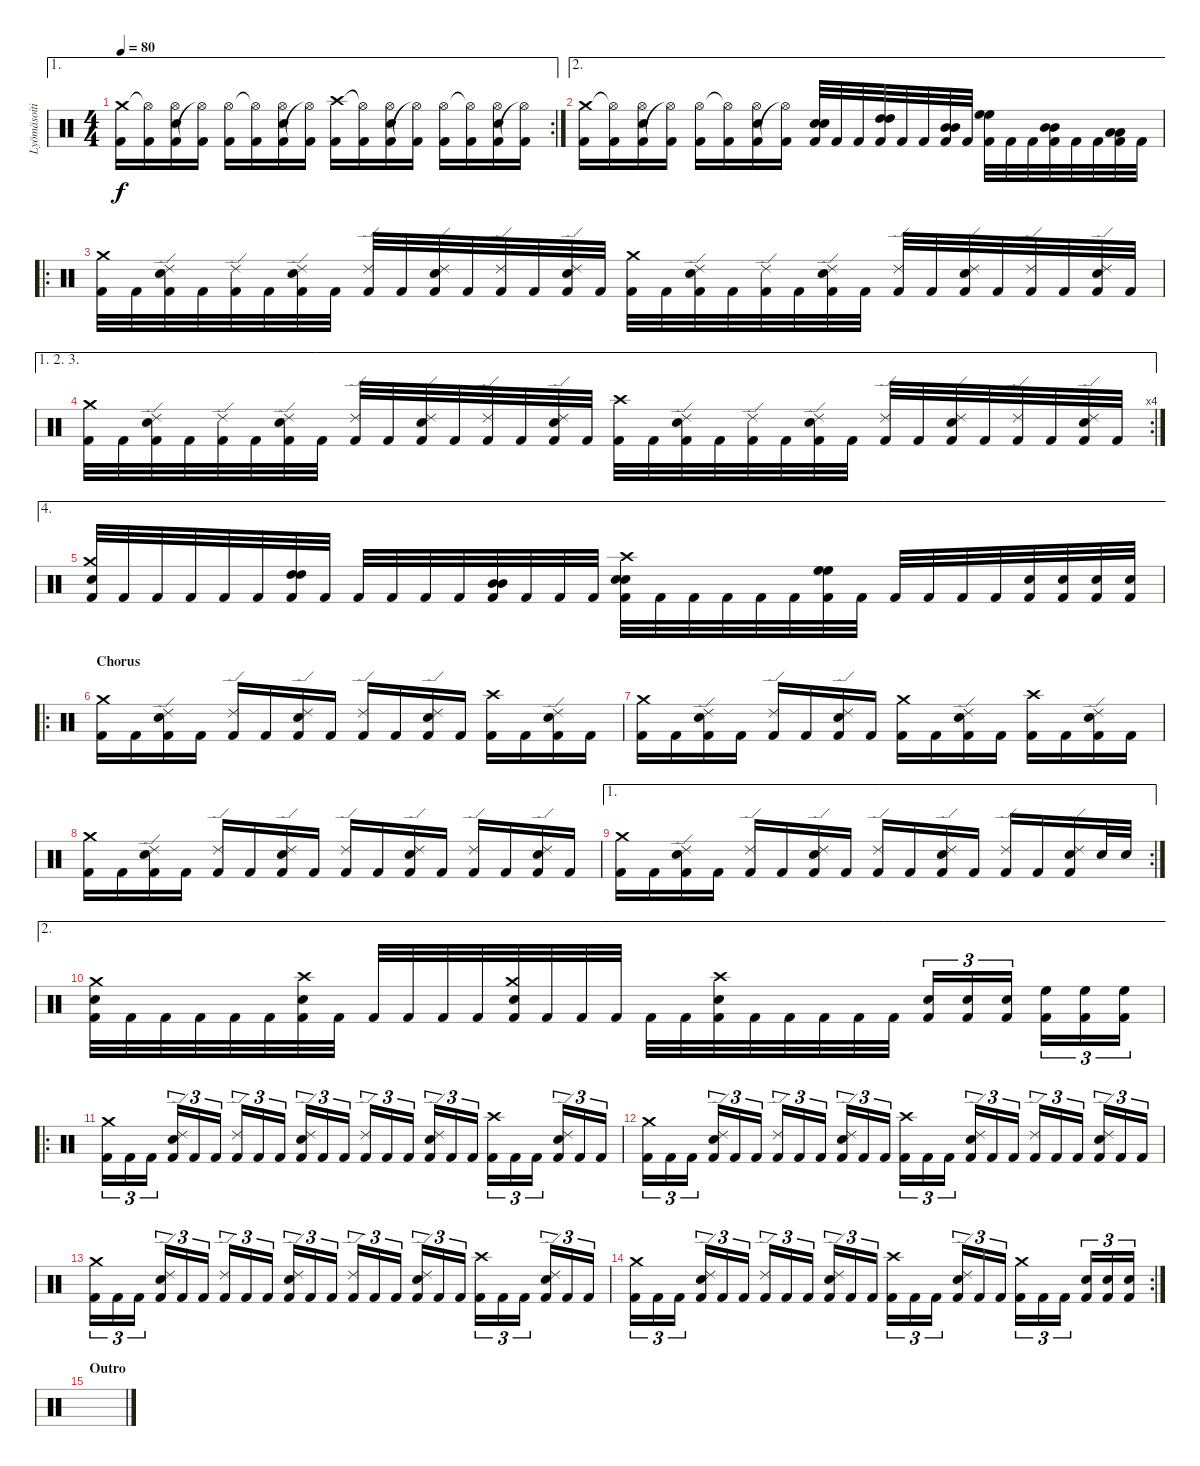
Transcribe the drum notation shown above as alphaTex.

\track ("Lyömäsoitin" "Lyömäsoiti") {instrument percussion}
\staff {score}
\articulation defaults
\ae 1
\rc 2
\ts (4 4)
\tempo 80
\clef neutral
\ks c
("Kick (hit) 2" "Crash medium (hit)").16{dy f} ("Kick (hit) 2" "Hi-Hat (open)"{t}).16 ("Electric Snare (hit)" "Kick (hit) 2" "Hi-Hat (open)").16 ("Kick (hit) 2" "Hi-Hat (open)"{t}).16 ("Kick (hit) 2" "Hi-Hat (open)").16 ("Kick (hit) 2" "Hi-Hat (open)"{t}).16 ("Electric Snare (hit)" "Kick (hit) 2" "Hi-Hat (open)").16 ("Kick (hit) 2" "Hi-Hat (open)"{t}).16 ("Kick (hit) 2" "Crash high (hit)").16 ("Kick (hit) 2" "Hi-Hat (open)"{t}).16 ("Electric Snare (hit)" "Kick (hit) 2" "Hi-Hat (open)").16 ("Kick (hit) 2" "Hi-Hat (open)"{t}).16 ("Kick (hit) 2" "Hi-Hat (open)").16 ("Kick (hit) 2" "Hi-Hat (open)"{t}).16 ("Electric Snare (hit)" "Kick (hit) 2" "Hi-Hat (open)").16 ("Kick (hit) 2" "Hi-Hat (open)"{t}).16 |
\ae 2
("Kick (hit) 2" "Crash medium (hit)").16 ("Kick (hit) 2" "Hi-Hat (open)"{t}).16 ("Electric Snare (hit)" "Kick (hit) 2" "Hi-Hat (open)").16 ("Kick (hit) 2" "Hi-Hat (open)"{t}).16 ("Kick (hit) 2" "Hi-Hat (open)").16 ("Kick (hit) 2" "Hi-Hat (open)"{t}).16 ("Electric Snare (hit)" "Kick (hit) 2" "Hi-Hat (open)").16 ("Kick (hit) 2" "Hi-Hat (open)"{t}).16 ("Electric Snare (hit)" "Electric Snare (hit)" "Kick (hit) 2").32 "Kick (hit) 2".32 "Kick (hit) 2".32 ("High Tom (hit)" "High Tom (hit)" "Kick (hit) 2").32 "Kick (hit) 2".32 "Kick (hit) 2".32 ("Mid Tom (hit)" "Mid Tom (hit)" "Kick (hit) 2").32 "Kick (hit) 2".32 ("High Floor Tom (hit)" "High Floor Tom (hit)" "Kick (hit) 2").32 "Kick (hit) 2".32 "Kick (hit) 2".32 ("Mid Tom (hit)" "Mid Tom (hit)" "Kick (hit) 2").32 "Kick (hit) 2".32 "Kick (hit) 2".32 ("Low Tom (hit)" "Low Tom (hit)" "Kick (hit) 2").32 "Kick (hit) 2".32 |
\ro
("Kick (hit) 2" "Crash medium (hit)").32 "Kick (hit) 2".32 ("Electric Snare (hit)" "Kick (hit) 2" "Ride (edge) 2").32 "Kick (hit) 2".32 ("Kick (hit) 2" "Ride (edge) 2").32 "Kick (hit) 2".32 ("Electric Snare (hit)" "Kick (hit) 2" "Ride (edge) 2").32 "Kick (hit) 2".32 ("Kick (hit) 2" "Ride (edge) 2").32 "Kick (hit) 2".32 ("Electric Snare (hit)" "Kick (hit) 2" "Ride (edge) 2").32 "Kick (hit) 2".32 ("Kick (hit) 2" "Ride (edge) 2").32 "Kick (hit) 2".32 ("Electric Snare (hit)" "Kick (hit) 2" "Ride (edge) 2").32 "Kick (hit) 2".32 ("Kick (hit) 2" "Crash medium (hit)").32 "Kick (hit) 2".32 ("Electric Snare (hit)" "Kick (hit) 2" "Ride (edge) 2").32 "Kick (hit) 2".32 ("Kick (hit) 2" "Ride (edge) 2").32 "Kick (hit) 2".32 ("Electric Snare (hit)" "Kick (hit) 2" "Ride (edge) 2").32 "Kick (hit) 2".32 ("Kick (hit) 2" "Ride (edge) 2").32 "Kick (hit) 2".32 ("Electric Snare (hit)" "Kick (hit) 2" "Ride (edge) 2").32 "Kick (hit) 2".32 ("Kick (hit) 2" "Ride (edge) 2").32 "Kick (hit) 2".32 ("Electric Snare (hit)" "Kick (hit) 2" "Ride (edge) 2").32 "Kick (hit) 2".32 |
\ae (1 2 3)
\rc 4
("Kick (hit) 2" "Crash medium (hit)").32 "Kick (hit) 2".32 ("Electric Snare (hit)" "Kick (hit) 2" "Ride (edge) 2").32 "Kick (hit) 2".32 ("Kick (hit) 2" "Ride (edge) 2").32 "Kick (hit) 2".32 ("Electric Snare (hit)" "Kick (hit) 2" "Ride (edge) 2").32 "Kick (hit) 2".32 ("Kick (hit) 2" "Ride (edge) 2").32 "Kick (hit) 2".32 ("Electric Snare (hit)" "Kick (hit) 2" "Ride (edge) 2").32 "Kick (hit) 2".32 ("Kick (hit) 2" "Ride (edge) 2").32 "Kick (hit) 2".32 ("Electric Snare (hit)" "Kick (hit) 2" "Ride (edge) 2").32 "Kick (hit) 2".32 ("Kick (hit) 2" "Crash high (hit)").32 "Kick (hit) 2".32 ("Electric Snare (hit)" "Kick (hit) 2" "Ride (edge) 2").32 "Kick (hit) 2".32 ("Kick (hit) 2" "Ride (edge) 2").32 "Kick (hit) 2".32 ("Electric Snare (hit)" "Kick (hit) 2" "Ride (edge) 2").32 "Kick (hit) 2".32 ("Kick (hit) 2" "Ride (edge) 2").32 "Kick (hit) 2".32 ("Electric Snare (hit)" "Kick (hit) 2" "Ride (edge) 2").32 "Kick (hit) 2".32 ("Kick (hit) 2" "Ride (edge) 2").32 "Kick (hit) 2".32 ("Electric Snare (hit)" "Kick (hit) 2" "Ride (edge) 2").32 "Kick (hit) 2".32 |
\ae 4
("Electric Snare (hit)" "Kick (hit) 2" "Crash medium (hit)").32 "Kick (hit) 2".32 "Kick (hit) 2".32 "Kick (hit) 2".32 "Kick (hit) 2".32 "Kick (hit) 2".32 ("High Tom (hit)" "High Tom (hit)" "Kick (hit) 2").32 "Kick (hit) 2".32 "Kick (hit) 2".32 "Kick (hit) 2".32 "Kick (hit) 2".32 "Kick (hit) 2".32 ("Mid Tom (hit)" "Mid Tom (hit)" "Kick (hit) 2").32 "Kick (hit) 2".32 "Kick (hit) 2".32 "Kick (hit) 2".32 ("Electric Snare (hit)" "Electric Snare (hit)" "Kick (hit) 2" "Crash high (hit)").32 "Kick (hit) 2".32 "Kick (hit) 2".32 "Kick (hit) 2".32 "Kick (hit) 2".32 "Kick (hit) 2".32 ("High Floor Tom (hit)" "High Floor Tom (hit)" "Kick (hit) 2").32 "Kick (hit) 2".32 "Kick (hit) 2".32 "Kick (hit) 2".32 "Kick (hit) 2".32 "Kick (hit) 2".32 ("Electric Snare (hit)" "Kick (hit) 2").32 ("Electric Snare (hit)" "Kick (hit) 2").32 ("Electric Snare (hit)" "Kick (hit) 2").32 ("Electric Snare (hit)" "Kick (hit) 2").32 |
\ro
\section ("" "Chorus ")
("Kick (hit) 2" "Crash medium (hit)").16 "Kick (hit) 2".16 ("Electric Snare (hit)" "Kick (hit) 2" "Ride (edge) 2").16 "Kick (hit) 2".16 ("Kick (hit) 2" "Ride (edge) 2").16 "Kick (hit) 2".16 ("Electric Snare (hit)" "Kick (hit) 2" "Ride (edge) 2").16 "Kick (hit) 2".16 ("Kick (hit) 2" "Ride (edge) 2").16 "Kick (hit) 2".16 ("Electric Snare (hit)" "Kick (hit) 2" "Ride (edge) 2").16 "Kick (hit) 2".16 ("Kick (hit) 2" "Crash high (hit)").16 "Kick (hit) 2".16 ("Electric Snare (hit)" "Kick (hit) 2" "Ride (edge) 2").16 "Kick (hit) 2".16 |
("Kick (hit) 2" "Crash medium (hit)").16 "Kick (hit) 2".16 ("Electric Snare (hit)" "Kick (hit) 2" "Ride (edge) 2").16 "Kick (hit) 2".16 ("Kick (hit) 2" "Ride (edge) 2").16 "Kick (hit) 2".16 ("Electric Snare (hit)" "Kick (hit) 2" "Ride (edge) 2").16 "Kick (hit) 2".16 ("Kick (hit) 2" "Crash medium (hit)").16 "Kick (hit) 2".16 ("Electric Snare (hit)" "Kick (hit) 2" "Ride (edge) 2").16 "Kick (hit) 2".16 ("Kick (hit) 2" "Crash high (hit)").16 "Kick (hit) 2".16 ("Electric Snare (hit)" "Kick (hit) 2" "Ride (edge) 2").16 "Kick (hit) 2".16 |
("Kick (hit) 2" "Crash medium (hit)").16 "Kick (hit) 2".16 ("Electric Snare (hit)" "Kick (hit) 2" "Ride (edge) 2").16 "Kick (hit) 2".16 ("Kick (hit) 2" "Ride (edge) 2").16 "Kick (hit) 2".16 ("Electric Snare (hit)" "Kick (hit) 2" "Ride (edge) 2").16 "Kick (hit) 2".16 ("Kick (hit) 2" "Ride (edge) 2").16 "Kick (hit) 2".16 ("Electric Snare (hit)" "Kick (hit) 2" "Ride (edge) 2").16 "Kick (hit) 2".16 ("Kick (hit) 2" "Ride (edge) 2").16 "Kick (hit) 2".16 ("Electric Snare (hit)" "Kick (hit) 2" "Ride (edge) 2").16 "Kick (hit) 2".16 |
\ae 1
\rc 2
("Kick (hit) 2" "Crash medium (hit)").16 "Kick (hit) 2".16 ("Electric Snare (hit)" "Kick (hit) 2" "Ride (edge) 2").16 "Kick (hit) 2".16 ("Kick (hit) 2" "Ride (edge) 2").16 "Kick (hit) 2".16 ("Electric Snare (hit)" "Kick (hit) 2" "Ride (edge) 2").16 "Kick (hit) 2".16 ("Kick (hit) 2" "Ride (edge) 2").16 "Kick (hit) 2".16 ("Electric Snare (hit)" "Kick (hit) 2" "Ride (edge) 2").16 "Kick (hit) 2".16 ("Kick (hit) 2" "Ride (edge) 2").16 "Kick (hit) 2".16 ("Electric Snare (hit)" "Kick (hit) 2" "Ride (edge) 2").16 "Electric Snare (hit)".32 "Electric Snare (hit)".32 |
\ae 2
("Crash medium (hit)" "Electric Snare (hit)" "Kick (hit) 2").32 "Kick (hit) 2".32 "Kick (hit) 2".32 "Kick (hit) 2".32 "Kick (hit) 2".32 "Kick (hit) 2".32 ("Crash high (hit)" "Electric Snare (hit)" "Kick (hit) 2").32 "Kick (hit) 2".32 "Kick (hit) 2".32 "Kick (hit) 2".32 "Kick (hit) 2".32 "Kick (hit) 2".32 ("Crash medium (hit)" "Electric Snare (hit)" "Kick (hit) 2").32 "Kick (hit) 2".32 "Kick (hit) 2".32 "Kick (hit) 2".32 "Kick (hit) 2".32 "Kick (hit) 2".32 ("Crash high (hit)" "Electric Snare (hit)" "Kick (hit) 2").32 "Kick (hit) 2".32 "Kick (hit) 2".32 "Kick (hit) 2".32 "Kick (hit) 2".32 "Kick (hit) 2".32 ("Electric Snare (hit)" "Kick (hit) 2").16{tu (3 2)} ("Electric Snare (hit)" "Kick (hit) 2").16{tu (3 2)} ("Electric Snare (hit)" "Kick (hit) 2").16{tu (3 2)} ("High Floor Tom (hit)" "Kick (hit) 2").16{tu (3 2)} ("High Floor Tom (hit)" "Kick (hit) 2").16{tu (3 2)} ("High Floor Tom (hit)" "Kick (hit) 2").16{tu (3 2)} |
\ro
("Kick (hit) 2" "Crash medium (hit)").16{tu (3 2)} "Kick (hit) 2".16{tu (3 2)} "Kick (hit) 2".16{tu (3 2)} ("Electric Snare (hit)" "Kick (hit) 2" "Ride (edge) 2").16{tu (3 2)} "Kick (hit) 2".16{tu (3 2)} "Kick (hit) 2".16{tu (3 2)} ("Kick (hit) 2" "Ride (edge) 2").16{tu (3 2)} "Kick (hit) 2".16{tu (3 2)} "Kick (hit) 2".16{tu (3 2)} ("Electric Snare (hit)" "Kick (hit) 2" "Ride (edge) 2").16{tu (3 2)} "Kick (hit) 2".16{tu (3 2)} "Kick (hit) 2".16{tu (3 2)} ("Kick (hit) 2" "Ride (edge) 2").16{tu (3 2)} "Kick (hit) 2".16{tu (3 2)} "Kick (hit) 2".16{tu (3 2)} ("Electric Snare (hit)" "Kick (hit) 2" "Ride (edge) 2").16{tu (3 2)} "Kick (hit) 2".16{tu (3 2)} "Kick (hit) 2".16{tu (3 2)} ("Kick (hit) 2" "Crash high (hit)").16{tu (3 2)} "Kick (hit) 2".16{tu (3 2)} "Kick (hit) 2".16{tu (3 2)} ("Electric Snare (hit)" "Kick (hit) 2" "Ride (edge) 2").16{tu (3 2)} "Kick (hit) 2".16{tu (3 2)} "Kick (hit) 2".16{tu (3 2)} |
("Kick (hit) 2" "Crash medium (hit)").16{tu (3 2)} "Kick (hit) 2".16{tu (3 2)} "Kick (hit) 2".16{tu (3 2)} ("Electric Snare (hit)" "Kick (hit) 2" "Ride (edge) 2").16{tu (3 2)} "Kick (hit) 2".16{tu (3 2)} "Kick (hit) 2".16{tu (3 2)} ("Kick (hit) 2" "Ride (edge) 2").16{tu (3 2)} "Kick (hit) 2".16{tu (3 2)} "Kick (hit) 2".16{tu (3 2)} ("Electric Snare (hit)" "Kick (hit) 2" "Ride (edge) 2").16{tu (3 2)} "Kick (hit) 2".16{tu (3 2)} "Kick (hit) 2".16{tu (3 2)} ("Kick (hit) 2" "Crash high (hit)").16{tu (3 2)} "Kick (hit) 2".16{tu (3 2)} "Kick (hit) 2".16{tu (3 2)} ("Electric Snare (hit)" "Kick (hit) 2" "Ride (edge) 2").16{tu (3 2)} "Kick (hit) 2".16{tu (3 2)} "Kick (hit) 2".16{tu (3 2)} ("Kick (hit) 2" "Ride (edge) 2").16{tu (3 2)} "Kick (hit) 2".16{tu (3 2)} "Kick (hit) 2".16{tu (3 2)} ("Electric Snare (hit)" "Kick (hit) 2" "Ride (edge) 2").16{tu (3 2)} "Kick (hit) 2".16{tu (3 2)} "Kick (hit) 2".16{tu (3 2)} |
("Kick (hit) 2" "Crash medium (hit)").16{tu (3 2)} "Kick (hit) 2".16{tu (3 2)} "Kick (hit) 2".16{tu (3 2)} ("Electric Snare (hit)" "Kick (hit) 2" "Ride (edge) 2").16{tu (3 2)} "Kick (hit) 2".16{tu (3 2)} "Kick (hit) 2".16{tu (3 2)} ("Kick (hit) 2" "Ride (edge) 2").16{tu (3 2)} "Kick (hit) 2".16{tu (3 2)} "Kick (hit) 2".16{tu (3 2)} ("Electric Snare (hit)" "Kick (hit) 2" "Ride (edge) 2").16{tu (3 2)} "Kick (hit) 2".16{tu (3 2)} "Kick (hit) 2".16{tu (3 2)} ("Kick (hit) 2" "Ride (edge) 2").16{tu (3 2)} "Kick (hit) 2".16{tu (3 2)} "Kick (hit) 2".16{tu (3 2)} ("Electric Snare (hit)" "Kick (hit) 2" "Ride (edge) 2").16{tu (3 2)} "Kick (hit) 2".16{tu (3 2)} "Kick (hit) 2".16{tu (3 2)} ("Kick (hit) 2" "Crash high (hit)").16{tu (3 2)} "Kick (hit) 2".16{tu (3 2)} "Kick (hit) 2".16{tu (3 2)} ("Electric Snare (hit)" "Kick (hit) 2" "Ride (edge) 2").16{tu (3 2)} "Kick (hit) 2".16{tu (3 2)} "Kick (hit) 2".16{tu (3 2)} |
\rc 2
("Kick (hit) 2" "Crash medium (hit)").16{tu (3 2)} "Kick (hit) 2".16{tu (3 2)} "Kick (hit) 2".16{tu (3 2)} ("Electric Snare (hit)" "Kick (hit) 2" "Ride (edge) 2").16{tu (3 2)} "Kick (hit) 2".16{tu (3 2)} "Kick (hit) 2".16{tu (3 2)} ("Kick (hit) 2" "Ride (edge) 2").16{tu (3 2)} "Kick (hit) 2".16{tu (3 2)} "Kick (hit) 2".16{tu (3 2)} ("Electric Snare (hit)" "Kick (hit) 2" "Ride (edge) 2").16{tu (3 2)} "Kick (hit) 2".16{tu (3 2)} "Kick (hit) 2".16{tu (3 2)} ("Kick (hit) 2" "Crash high (hit)").16{tu (3 2)} "Kick (hit) 2".16{tu (3 2)} "Kick (hit) 2".16{tu (3 2)} ("Electric Snare (hit)" "Kick (hit) 2" "Ride (edge) 2").16{tu (3 2)} "Kick (hit) 2".16{tu (3 2)} "Kick (hit) 2".16{tu (3 2)} ("Kick (hit) 2" "Crash medium (hit)").16{tu (3 2)} "Kick (hit) 2".16{tu (3 2)} "Kick (hit) 2".16{tu (3 2)} ("Electric Snare (hit)" "Kick (hit) 2").16{tu (3 2)} ("Electric Snare (hit)" "Kick (hit) 2").16{tu (3 2)} ("Electric Snare (hit)" "Kick (hit) 2").16{tu (3 2)} |
\section ("" "Outro")
